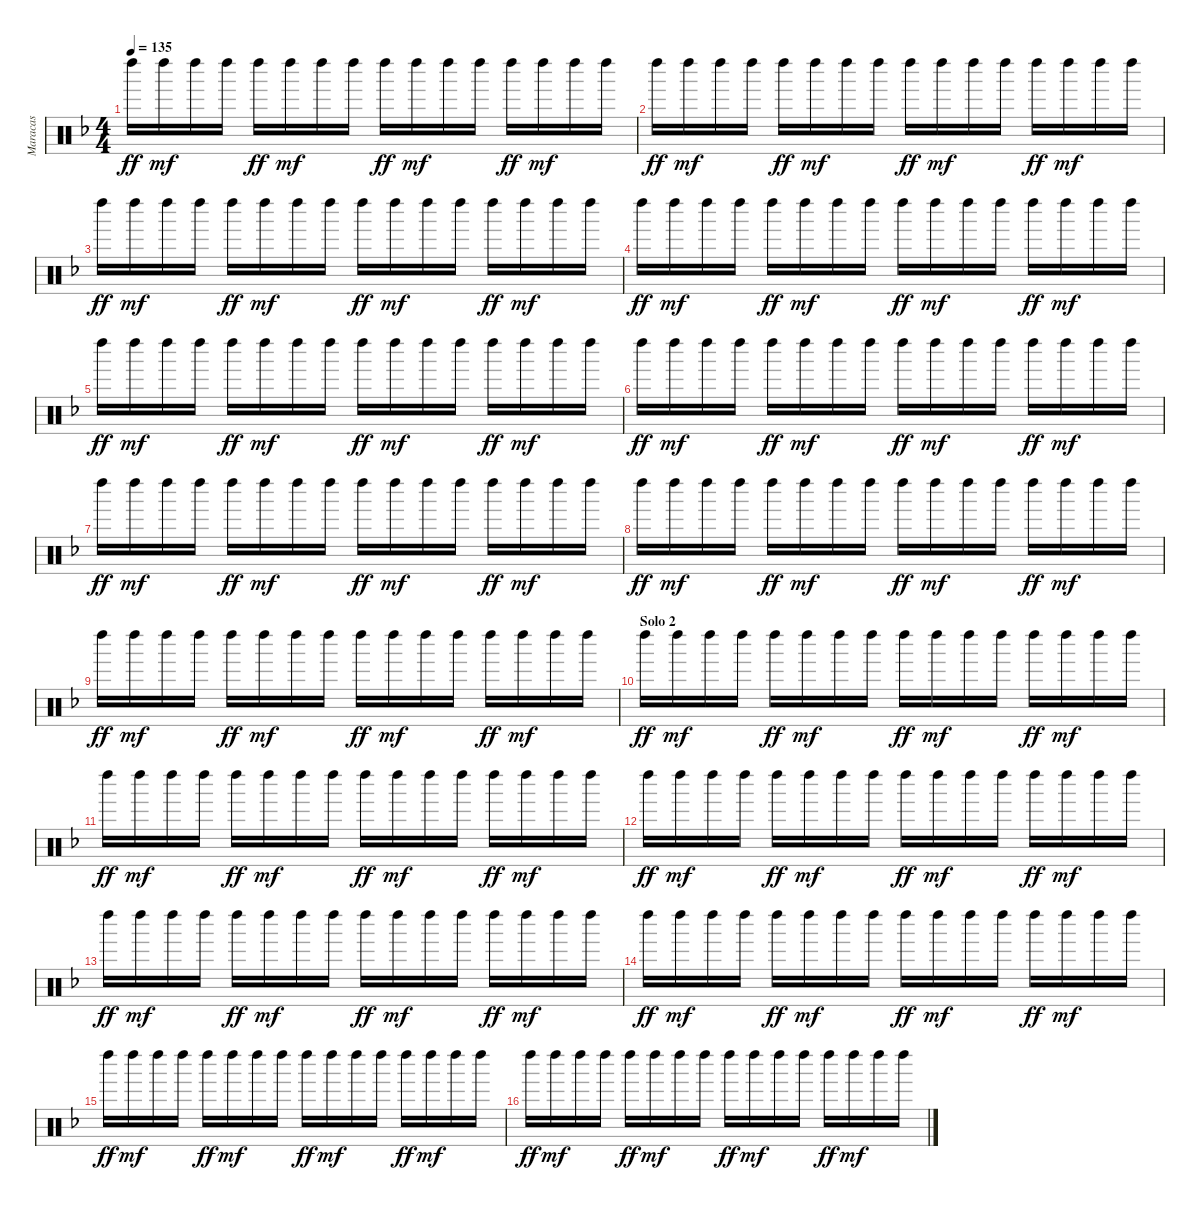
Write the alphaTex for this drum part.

\track ("Maracas" "Maracas") {instrument percussion}
\staff {score}
\articulation defaults
\ts (4 4)
\tempo 135
\clef neutral
\ks f "Left Maraca (hit)".16{dy ff} "Left Maraca (hit)".16{dy mf} "Left Maraca (hit)".16 "Left Maraca (hit)".16 "Left Maraca (hit)".16{dy ff} "Left Maraca (hit)".16{dy mf} "Left Maraca (hit)".16 "Left Maraca (hit)".16 "Left Maraca (hit)".16{dy ff} "Left Maraca (hit)".16{dy mf} "Left Maraca (hit)".16 "Left Maraca (hit)".16 "Left Maraca (hit)".16{dy ff} "Left Maraca (hit)".16{dy mf} "Left Maraca (hit)".16 "Left Maraca (hit)".16
|
"Left Maraca (hit)".16{dy ff} "Left Maraca (hit)".16{dy mf} "Left Maraca (hit)".16 "Left Maraca (hit)".16 "Left Maraca (hit)".16{dy ff} "Left Maraca (hit)".16{dy mf} "Left Maraca (hit)".16 "Left Maraca (hit)".16 "Left Maraca (hit)".16{dy ff} "Left Maraca (hit)".16{dy mf} "Left Maraca (hit)".16 "Left Maraca (hit)".16 "Left Maraca (hit)".16{dy ff} "Left Maraca (hit)".16{dy mf} "Left Maraca (hit)".16 "Left Maraca (hit)".16 |
"Left Maraca (hit)".16{dy ff} "Left Maraca (hit)".16{dy mf} "Left Maraca (hit)".16 "Left Maraca (hit)".16 "Left Maraca (hit)".16{dy ff} "Left Maraca (hit)".16{dy mf} "Left Maraca (hit)".16 "Left Maraca (hit)".16 "Left Maraca (hit)".16{dy ff} "Left Maraca (hit)".16{dy mf} "Left Maraca (hit)".16 "Left Maraca (hit)".16 "Left Maraca (hit)".16{dy ff} "Left Maraca (hit)".16{dy mf} "Left Maraca (hit)".16 "Left Maraca (hit)".16 |
"Left Maraca (hit)".16{dy ff} "Left Maraca (hit)".16{dy mf} "Left Maraca (hit)".16 "Left Maraca (hit)".16 "Left Maraca (hit)".16{dy ff} "Left Maraca (hit)".16{dy mf} "Left Maraca (hit)".16 "Left Maraca (hit)".16 "Left Maraca (hit)".16{dy ff} "Left Maraca (hit)".16{dy mf} "Left Maraca (hit)".16 "Left Maraca (hit)".16 "Left Maraca (hit)".16{dy ff} "Left Maraca (hit)".16{dy mf} "Left Maraca (hit)".16 "Left Maraca (hit)".16 |
"Left Maraca (hit)".16{dy ff} "Left Maraca (hit)".16{dy mf} "Left Maraca (hit)".16 "Left Maraca (hit)".16 "Left Maraca (hit)".16{dy ff} "Left Maraca (hit)".16{dy mf} "Left Maraca (hit)".16 "Left Maraca (hit)".16 "Left Maraca (hit)".16{dy ff} "Left Maraca (hit)".16{dy mf} "Left Maraca (hit)".16 "Left Maraca (hit)".16 "Left Maraca (hit)".16{dy ff} "Left Maraca (hit)".16{dy mf} "Left Maraca (hit)".16 "Left Maraca (hit)".16 |
"Left Maraca (hit)".16{dy ff} "Left Maraca (hit)".16{dy mf} "Left Maraca (hit)".16 "Left Maraca (hit)".16 "Left Maraca (hit)".16{dy ff} "Left Maraca (hit)".16{dy mf} "Left Maraca (hit)".16 "Left Maraca (hit)".16 "Left Maraca (hit)".16{dy ff} "Left Maraca (hit)".16{dy mf} "Left Maraca (hit)".16 "Left Maraca (hit)".16 "Left Maraca (hit)".16{dy ff} "Left Maraca (hit)".16{dy mf} "Left Maraca (hit)".16 "Left Maraca (hit)".16 |
"Left Maraca (hit)".16{dy ff} "Left Maraca (hit)".16{dy mf} "Left Maraca (hit)".16 "Left Maraca (hit)".16 "Left Maraca (hit)".16{dy ff} "Left Maraca (hit)".16{dy mf} "Left Maraca (hit)".16 "Left Maraca (hit)".16 "Left Maraca (hit)".16{dy ff} "Left Maraca (hit)".16{dy mf} "Left Maraca (hit)".16 "Left Maraca (hit)".16 "Left Maraca (hit)".16{dy ff} "Left Maraca (hit)".16{dy mf} "Left Maraca (hit)".16 "Left Maraca (hit)".16 |
"Left Maraca (hit)".16{dy ff} "Left Maraca (hit)".16{dy mf} "Left Maraca (hit)".16 "Left Maraca (hit)".16 "Left Maraca (hit)".16{dy ff} "Left Maraca (hit)".16{dy mf} "Left Maraca (hit)".16 "Left Maraca (hit)".16 "Left Maraca (hit)".16{dy ff} "Left Maraca (hit)".16{dy mf} "Left Maraca (hit)".16 "Left Maraca (hit)".16 "Left Maraca (hit)".16{dy ff} "Left Maraca (hit)".16{dy mf} "Left Maraca (hit)".16 "Left Maraca (hit)".16 |
"Left Maraca (hit)".16{dy ff} "Left Maraca (hit)".16{dy mf} "Left Maraca (hit)".16 "Left Maraca (hit)".16 "Left Maraca (hit)".16{dy ff} "Left Maraca (hit)".16{dy mf} "Left Maraca (hit)".16 "Left Maraca (hit)".16 "Left Maraca (hit)".16{dy ff} "Left Maraca (hit)".16{dy mf} "Left Maraca (hit)".16 "Left Maraca (hit)".16 "Left Maraca (hit)".16{dy ff} "Left Maraca (hit)".16{dy mf} "Left Maraca (hit)".16 "Left Maraca (hit)".16 |
\section ("" "Solo 2")
"Left Maraca (hit)".16{dy ff} "Left Maraca (hit)".16{dy mf} "Left Maraca (hit)".16 "Left Maraca (hit)".16 "Left Maraca (hit)".16{dy ff} "Left Maraca (hit)".16{dy mf} "Left Maraca (hit)".16 "Left Maraca (hit)".16 "Left Maraca (hit)".16{dy ff} "Left Maraca (hit)".16{dy mf} "Left Maraca (hit)".16 "Left Maraca (hit)".16 "Left Maraca (hit)".16{dy ff} "Left Maraca (hit)".16{dy mf} "Left Maraca (hit)".16 "Left Maraca (hit)".16 |
"Left Maraca (hit)".16{dy ff} "Left Maraca (hit)".16{dy mf} "Left Maraca (hit)".16 "Left Maraca (hit)".16 "Left Maraca (hit)".16{dy ff} "Left Maraca (hit)".16{dy mf} "Left Maraca (hit)".16 "Left Maraca (hit)".16 "Left Maraca (hit)".16{dy ff} "Left Maraca (hit)".16{dy mf} "Left Maraca (hit)".16 "Left Maraca (hit)".16 "Left Maraca (hit)".16{dy ff} "Left Maraca (hit)".16{dy mf} "Left Maraca (hit)".16 "Left Maraca (hit)".16 |
"Left Maraca (hit)".16{dy ff} "Left Maraca (hit)".16{dy mf} "Left Maraca (hit)".16 "Left Maraca (hit)".16 "Left Maraca (hit)".16{dy ff} "Left Maraca (hit)".16{dy mf} "Left Maraca (hit)".16 "Left Maraca (hit)".16 "Left Maraca (hit)".16{dy ff} "Left Maraca (hit)".16{dy mf} "Left Maraca (hit)".16 "Left Maraca (hit)".16 "Left Maraca (hit)".16{dy ff} "Left Maraca (hit)".16{dy mf} "Left Maraca (hit)".16 "Left Maraca (hit)".16 |
"Left Maraca (hit)".16{dy ff} "Left Maraca (hit)".16{dy mf} "Left Maraca (hit)".16 "Left Maraca (hit)".16 "Left Maraca (hit)".16{dy ff} "Left Maraca (hit)".16{dy mf} "Left Maraca (hit)".16 "Left Maraca (hit)".16 "Left Maraca (hit)".16{dy ff} "Left Maraca (hit)".16{dy mf} "Left Maraca (hit)".16 "Left Maraca (hit)".16 "Left Maraca (hit)".16{dy ff} "Left Maraca (hit)".16{dy mf} "Left Maraca (hit)".16 "Left Maraca (hit)".16 |
"Left Maraca (hit)".16{dy ff} "Left Maraca (hit)".16{dy mf} "Left Maraca (hit)".16 "Left Maraca (hit)".16 "Left Maraca (hit)".16{dy ff} "Left Maraca (hit)".16{dy mf} "Left Maraca (hit)".16 "Left Maraca (hit)".16 "Left Maraca (hit)".16{dy ff} "Left Maraca (hit)".16{dy mf} "Left Maraca (hit)".16 "Left Maraca (hit)".16 "Left Maraca (hit)".16{dy ff} "Left Maraca (hit)".16{dy mf} "Left Maraca (hit)".16 "Left Maraca (hit)".16 |
"Left Maraca (hit)".16{dy ff} "Left Maraca (hit)".16{dy mf} "Left Maraca (hit)".16 "Left Maraca (hit)".16 "Left Maraca (hit)".16{dy ff} "Left Maraca (hit)".16{dy mf} "Left Maraca (hit)".16 "Left Maraca (hit)".16 "Left Maraca (hit)".16{dy ff} "Left Maraca (hit)".16{dy mf} "Left Maraca (hit)".16 "Left Maraca (hit)".16 "Left Maraca (hit)".16{dy ff} "Left Maraca (hit)".16{dy mf} "Left Maraca (hit)".16 "Left Maraca (hit)".16 |
"Left Maraca (hit)".16{dy ff} "Left Maraca (hit)".16{dy mf} "Left Maraca (hit)".16 "Left Maraca (hit)".16 "Left Maraca (hit)".16{dy ff} "Left Maraca (hit)".16{dy mf} "Left Maraca (hit)".16 "Left Maraca (hit)".16 "Left Maraca (hit)".16{dy ff} "Left Maraca (hit)".16{dy mf} "Left Maraca (hit)".16 "Left Maraca (hit)".16 "Left Maraca (hit)".16{dy ff} "Left Maraca (hit)".16{dy mf} "Left Maraca (hit)".16 "Left Maraca (hit)".16
